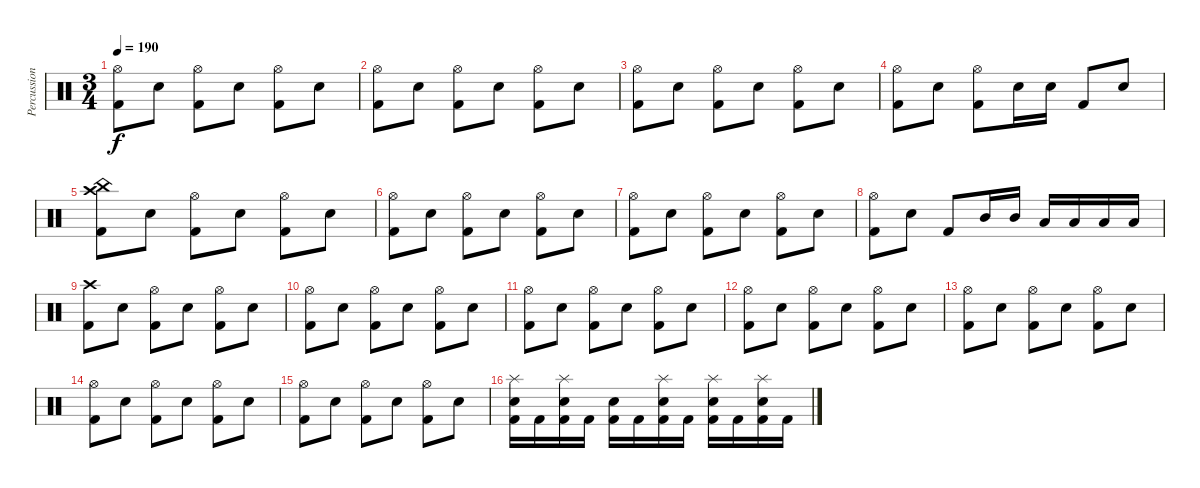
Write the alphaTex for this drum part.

\track ("Percussion" "Percussion") {instrument percussion}
\staff {score}
\articulation defaults
\ts (3 4)
\tempo 190
\clef neutral
\ks c
("Hi-Hat (open)" "Kick (hit) 2").8{dy f} "Electric Snare (hit)".8 ("Hi-Hat (open)" "Kick (hit) 2").8 "Electric Snare (hit)".8 ("Hi-Hat (open)" "Kick (hit) 2").8 "Electric Snare (hit)".8 |
("Hi-Hat (open)" "Kick (hit) 2").8 "Electric Snare (hit)".8 ("Hi-Hat (open)" "Kick (hit) 2").8 "Electric Snare (hit)".8 ("Hi-Hat (open)" "Kick (hit) 2").8 "Electric Snare (hit)".8 |
("Hi-Hat (open)" "Kick (hit) 2").8 "Electric Snare (hit)".8 ("Hi-Hat (open)" "Kick (hit) 2").8 "Electric Snare (hit)".8 ("Hi-Hat (open)" "Kick (hit) 2").8 "Electric Snare (hit)".8 |
("Hi-Hat (open)" "Kick (hit) 2").8 "Electric Snare (hit)".8 ("Hi-Hat (open)" "Kick (hit) 2").8 "Electric Snare (hit)".16 "Electric Snare (hit)".16 "Kick (hit) 2".8 "Electric Snare (hit)".8 |
("China (hit)" "Crash high (hit)" "Kick (hit) 2").8 "Electric Snare (hit)".8 ("Hi-Hat (open)" "Kick (hit) 2").8 "Electric Snare (hit)".8 ("Hi-Hat (open)" "Kick (hit) 2").8 "Electric Snare (hit)".8 |
("Hi-Hat (open)" "Kick (hit) 2").8 "Electric Snare (hit)".8 ("Hi-Hat (open)" "Kick (hit) 2").8 "Electric Snare (hit)".8 ("Hi-Hat (open)" "Kick (hit) 2").8 "Electric Snare (hit)".8 |
("Hi-Hat (open)" "Kick (hit) 2").8 "Electric Snare (hit)".8 ("Hi-Hat (open)" "Kick (hit) 2").8 "Electric Snare (hit)".8 ("Hi-Hat (open)" "Kick (hit) 2").8 "Electric Snare (hit)".8 |
("Hi-Hat (open)" "Kick (hit) 2").8 "Electric Snare (hit)".8 "Kick (hit) 2".8 "Mid Tom (hit)".16 "Mid Tom (hit)".16 "Low Tom (hit)".16 "Low Tom (hit)".16 "Low Tom (hit)".16 "Low Tom (hit)".16 |
("Crash high (hit)" "Kick (hit) 2").8 "Electric Snare (hit)".8 ("Hi-Hat (open)" "Kick (hit) 2").8 "Electric Snare (hit)".8 ("Hi-Hat (open)" "Kick (hit) 2").8 "Electric Snare (hit)".8 |
("Hi-Hat (open)" "Kick (hit) 2").8 "Electric Snare (hit)".8 ("Hi-Hat (open)" "Kick (hit) 2").8 "Electric Snare (hit)".8 ("Hi-Hat (open)" "Kick (hit) 2").8 "Electric Snare (hit)".8 |
("Hi-Hat (open)" "Kick (hit) 2").8 "Electric Snare (hit)".8 ("Hi-Hat (open)" "Kick (hit) 2").8 "Electric Snare (hit)".8 ("Hi-Hat (open)" "Kick (hit) 2").8 "Electric Snare (hit)".8 |
("Hi-Hat (open)" "Kick (hit) 2").8 "Electric Snare (hit)".8 ("Hi-Hat (open)" "Kick (hit) 2").8 "Electric Snare (hit)".8 ("Hi-Hat (open)" "Kick (hit) 2").8 "Electric Snare (hit)".8 |
("Hi-Hat (open)" "Kick (hit) 2").8 "Electric Snare (hit)".8 ("Hi-Hat (open)" "Kick (hit) 2").8 "Electric Snare (hit)".8 ("Hi-Hat (open)" "Kick (hit) 2").8 "Electric Snare (hit)".8 |
("Hi-Hat (open)" "Kick (hit) 2").8 "Electric Snare (hit)".8 ("Hi-Hat (open)" "Kick (hit) 2").8 "Electric Snare (hit)".8 ("Hi-Hat (open)" "Kick (hit) 2").8 "Electric Snare (hit)".8 |
("Hi-Hat (open)" "Kick (hit) 2").8 "Electric Snare (hit)".8 ("Hi-Hat (open)" "Kick (hit) 2").8 "Electric Snare (hit)".8 ("Hi-Hat (open)" "Kick (hit) 2").8 "Electric Snare (hit)".8 |
("Splash (hit)" "Electric Snare (hit)" "Kick (hit) 2").16 "Kick (hit) 2".16 ("Splash (hit)" "Electric Snare (hit)" "Kick (hit) 2").16 "Kick (hit) 2".16 ("Electric Snare (hit)" "Kick (hit) 2").16 "Kick (hit) 2".16 ("Splash (hit)" "Electric Snare (hit)" "Kick (hit) 2").16 "Kick (hit) 2".16 ("Splash (hit)" "Electric Snare (hit)" "Kick (hit) 2").16 "Kick (hit) 2".16 ("Splash (hit)" "Electric Snare (hit)" "Kick (hit) 2").16 "Kick (hit) 2".16
